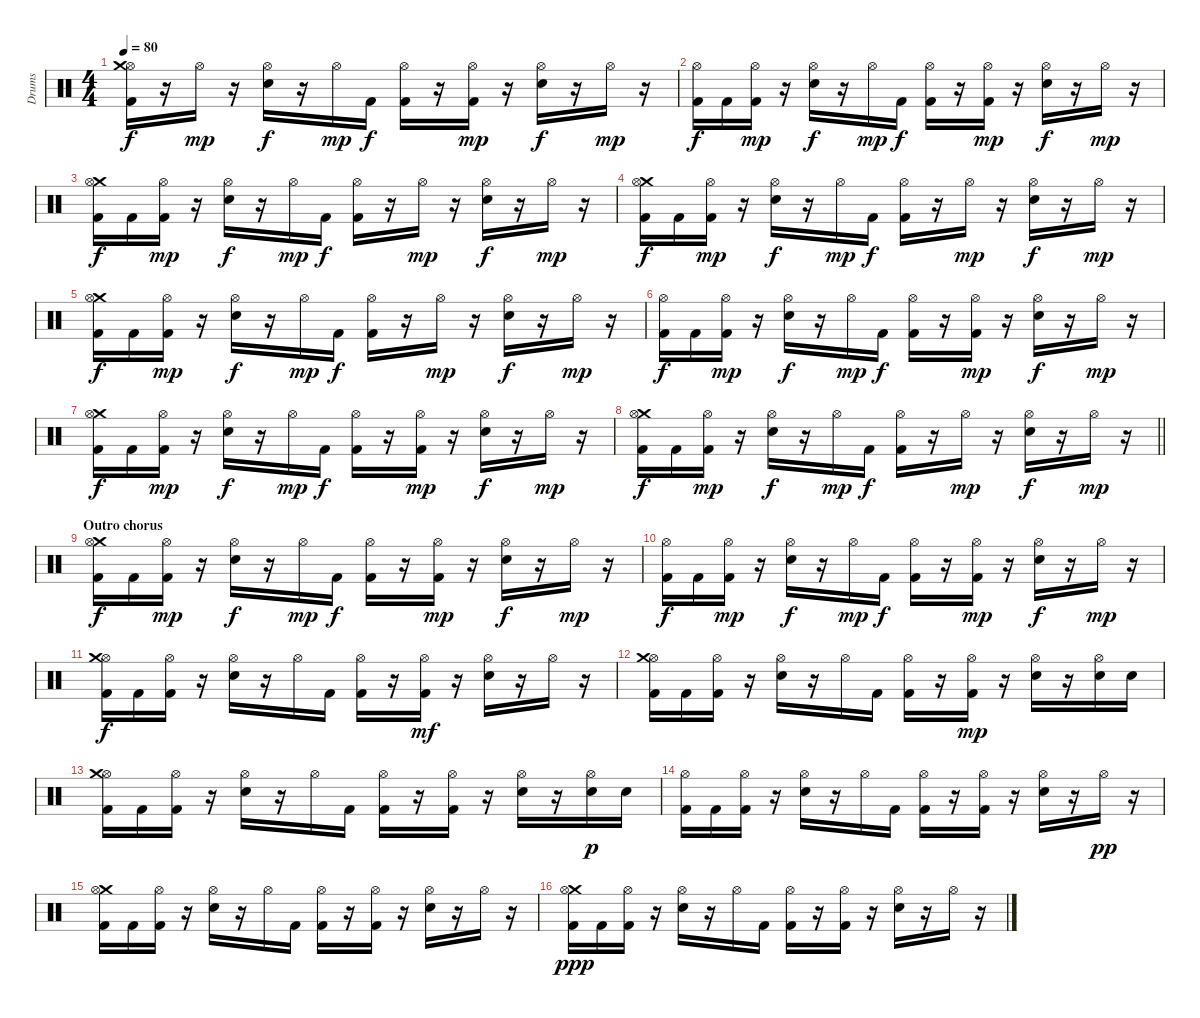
\track ("Drums" "Drums") {instrument percussion}
\staff {score}
\articulation defaults
\ts (4 4)
\tempo 80
\clef neutral
\ks c
("Kick (hit) 2" "Hi-Hat (open)" "Crash medium (hit)").16{dy f} r.16 "Hi-Hat (open)".16{dy mp} r.16 ("Snare (hit) 2" "Hi-Hat (open)").16{dy f} r.16 "Hi-Hat (open)".16{dy mp} "Kick (hit) 2".16{dy f} ("Kick (hit) 2" "Hi-Hat (open)").16 r.16 ("Kick (hit) 2" "Hi-Hat (open)").16{dy mp} r.16 ("Snare (hit) 2" "Hi-Hat (open)").16{dy f} r.16 "Hi-Hat (open)".16{dy mp} r.16 |
("Hi-Hat (open)" "Kick (hit) 2").16{dy f} "Kick (hit) 2".16 ("Kick (hit) 2" "Hi-Hat (open)").16{dy mp} r.16 ("Snare (hit) 2" "Hi-Hat (open)").16{dy f} r.16 "Hi-Hat (open)".16{dy mp} "Kick (hit) 2".16{dy f} ("Hi-Hat (open)" "Kick (hit) 2").16 r.16 ("Hi-Hat (open)" "Kick (hit) 2").16{dy mp} r.16 ("Snare (hit) 2" "Hi-Hat (open)").16{dy f} r.16 "Hi-Hat (open)".16{dy mp} r.16 |
("Crash medium (hit)" "Kick (hit) 2" "Hi-Hat (open)").16{dy f} "Kick (hit) 2".16 ("Kick (hit) 2" "Hi-Hat (open)").16{dy mp} r.16 ("Hi-Hat (open)" "Snare (hit) 2").16{dy f} r.16 "Hi-Hat (open)".16{dy mp} "Kick (hit) 2".16{dy f} ("Kick (hit) 2" "Hi-Hat (open)").16 r.16 "Hi-Hat (open)".16{dy mp} r.16 ("Snare (hit) 2" "Hi-Hat (open)").16{dy f} r.16 "Hi-Hat (open)".16{dy mp} r.16 |
("Crash medium (hit)" "Hi-Hat (open)" "Kick (hit) 2").16{dy f} "Kick (hit) 2".16 ("Kick (hit) 2" "Hi-Hat (open)").16{dy mp} r.16 ("Hi-Hat (open)" "Snare (hit) 2").16{dy f} r.16 "Hi-Hat (open)".16{dy mp} "Kick (hit) 2".16{dy f} ("Hi-Hat (open)" "Kick (hit) 2").16 r.16 "Hi-Hat (open)".16{dy mp} r.16 ("Hi-Hat (open)" "Snare (hit) 2").16{dy f} r.16 "Hi-Hat (open)".16{dy mp} r.16 |
("Crash medium (hit)" "Kick (hit) 2" "Hi-Hat (open)").16{dy f} "Kick (hit) 2".16 ("Hi-Hat (open)" "Kick (hit) 2").16{dy mp} r.16 ("Hi-Hat (open)" "Snare (hit) 2").16{dy f} r.16 "Hi-Hat (open)".16{dy mp} "Kick (hit) 2".16{dy f} ("Hi-Hat (open)" "Kick (hit) 2").16 r.16 "Hi-Hat (open)".16{dy mp} r.16 ("Snare (hit) 2" "Hi-Hat (open)").16{dy f} r.16 "Hi-Hat (open)".16{dy mp} r.16 |
("Kick (hit) 2" "Hi-Hat (open)").16{dy f} "Kick (hit) 2".16 ("Kick (hit) 2" "Hi-Hat (open)").16{dy mp} r.16 ("Snare (hit) 2" "Hi-Hat (open)").16{dy f} r.16 "Hi-Hat (open)".16{dy mp} "Kick (hit) 2".16{dy f} ("Hi-Hat (open)" "Kick (hit) 2").16 r.16 ("Kick (hit) 2" "Hi-Hat (open)").16{dy mp} r.16 ("Snare (hit) 2" "Hi-Hat (open)").16{dy f} r.16 "Hi-Hat (open)".16{dy mp} r.16 |
("Kick (hit) 2" "Crash medium (hit)" "Hi-Hat (open)").16{dy f} "Kick (hit) 2".16 ("Kick (hit) 2" "Hi-Hat (open)").16{dy mp} r.16 ("Hi-Hat (open)" "Snare (hit) 2").16{dy f} r.16 "Hi-Hat (open)".16{dy mp} "Kick (hit) 2".16{dy f} ("Kick (hit) 2" "Hi-Hat (open)").16 r.16 ("Kick (hit) 2" "Hi-Hat (open)").16{dy mp} r.16 ("Snare (hit) 2" "Hi-Hat (open)").16{dy f} r.16 "Hi-Hat (open)".16{dy mp} r.16 |
\barLineRight lightlight
("Kick (hit) 2" "Crash medium (hit)" "Hi-Hat (open)").16{dy f} "Kick (hit) 2".16 ("Kick (hit) 2" "Hi-Hat (open)").16{dy mp} r.16 ("Hi-Hat (open)" "Snare (hit) 2").16{dy f} r.16 "Hi-Hat (open)".16{dy mp} "Kick (hit) 2".16{dy f} ("Kick (hit) 2" "Hi-Hat (open)").16 r.16 "Hi-Hat (open)".16{dy mp} r.16 ("Snare (hit) 2" "Hi-Hat (open)").16{dy f} r.16 "Hi-Hat (open)".16{dy mp} r.16 |
\section ("" "Outro chorus")
("Crash medium (hit)" "Hi-Hat (open)" "Kick (hit) 2").16{dy f} "Kick (hit) 2".16 ("Hi-Hat (open)" "Kick (hit) 2").16{dy mp} r.16 ("Snare (hit) 2" "Hi-Hat (open)").16{dy f} r.16 "Hi-Hat (open)".16{dy mp} "Kick (hit) 2".16{dy f} ("Kick (hit) 2" "Hi-Hat (open)").16 r.16 ("Kick (hit) 2" "Hi-Hat (open)").16{dy mp} r.16 ("Snare (hit) 2" "Hi-Hat (open)").16{dy f} r.16 "Hi-Hat (open)".16{dy mp} r.16 |
("Hi-Hat (open)" "Kick (hit) 2").16{dy f} "Kick (hit) 2".16 ("Kick (hit) 2" "Hi-Hat (open)").16{dy mp} r.16 ("Snare (hit) 2" "Hi-Hat (open)").16{dy f} r.16 "Hi-Hat (open)".16{dy mp} "Kick (hit) 2".16{dy f} ("Hi-Hat (open)" "Kick (hit) 2").16 r.16 ("Kick (hit) 2" "Hi-Hat (open)").16{dy mp} r.16 ("Snare (hit) 2" "Hi-Hat (open)").16{dy f} r.16 "Hi-Hat (open)".16{dy mp} r.16 |
("Hi-Hat (open)" "Crash medium (hit)" "Kick (hit) 2").16{dy f} "Kick (hit) 2".16 ("Kick (hit) 2" "Hi-Hat (open)").16 r.16 ("Hi-Hat (open)" "Snare (hit) 2").16 r.16 "Hi-Hat (open)".16 "Kick (hit) 2".16 ("Kick (hit) 2" "Hi-Hat (open)").16 r.16 ("Hi-Hat (open)" "Kick (hit) 2").16{dy mf} r.16 ("Hi-Hat (open)" "Snare (hit) 2").16 r.16 "Hi-Hat (open)".16 r.16 |
("Kick (hit) 2" "Hi-Hat (open)" "Crash medium (hit)").16 "Kick (hit) 2".16 ("Hi-Hat (open)" "Kick (hit) 2").16 r.16 ("Snare (hit) 2" "Hi-Hat (open)").16 r.16 "Hi-Hat (open)".16 "Kick (hit) 2".16 ("Hi-Hat (open)" "Kick (hit) 2").16 r.16 ("Kick (hit) 2" "Hi-Hat (open)").16{dy mp} r.16 ("Snare (hit) 2" "Hi-Hat (open)").16 r.16 ("Snare (hit) 2" "Hi-Hat (open)").16 "Snare (hit) 2".16 |
("Kick (hit) 2" "Hi-Hat (open)" "Crash medium (hit)").16 "Kick (hit) 2".16 ("Hi-Hat (open)" "Kick (hit) 2").16 r.16 ("Snare (hit) 2" "Hi-Hat (open)").16 r.16 "Hi-Hat (open)".16 "Kick (hit) 2".16 ("Hi-Hat (open)" "Kick (hit) 2").16 r.16 ("Hi-Hat (open)" "Kick (hit) 2").16 r.16 ("Hi-Hat (open)" "Snare (hit) 2").16 r.16 ("Hi-Hat (open)" "Snare (hit) 2").16{dy p} "Snare (hit) 2".16 |
("Hi-Hat (open)" "Kick (hit) 2").16 "Kick (hit) 2".16 ("Hi-Hat (open)" "Kick (hit) 2").16 r.16 ("Snare (hit) 2" "Hi-Hat (open)").16 r.16 "Hi-Hat (open)".16 "Kick (hit) 2".16 ("Hi-Hat (open)" "Kick (hit) 2").16 r.16 ("Hi-Hat (open)" "Kick (hit) 2").16 r.16 ("Hi-Hat (open)" "Snare (hit) 2").16 r.16 "Hi-Hat (open)".16{dy pp} r.16 |
("Crash medium (hit)" "Hi-Hat (open)" "Kick (hit) 2").16 "Kick (hit) 2".16 ("Hi-Hat (open)" "Kick (hit) 2").16 r.16 ("Snare (hit) 2" "Hi-Hat (open)").16 r.16 "Hi-Hat (open)".16 "Kick (hit) 2".16 ("Hi-Hat (open)" "Kick (hit) 2").16 r.16 ("Hi-Hat (open)" "Kick (hit) 2").16 r.16 ("Hi-Hat (open)" "Snare (hit) 2").16 r.16 "Hi-Hat (open)".16 r.16 |
("Kick (hit) 2" "Crash medium (hit)" "Hi-Hat (open)").16{dy ppp} "Kick (hit) 2".16 ("Kick (hit) 2" "Hi-Hat (open)").16 r.16 ("Hi-Hat (open)" "Snare (hit) 2").16 r.16 "Hi-Hat (open)".16 "Kick (hit) 2".16 ("Hi-Hat (open)" "Kick (hit) 2").16 r.16 ("Hi-Hat (open)" "Kick (hit) 2").16 r.16 ("Hi-Hat (open)" "Snare (hit) 2").16 r.16 "Hi-Hat (open)".16 r.16
